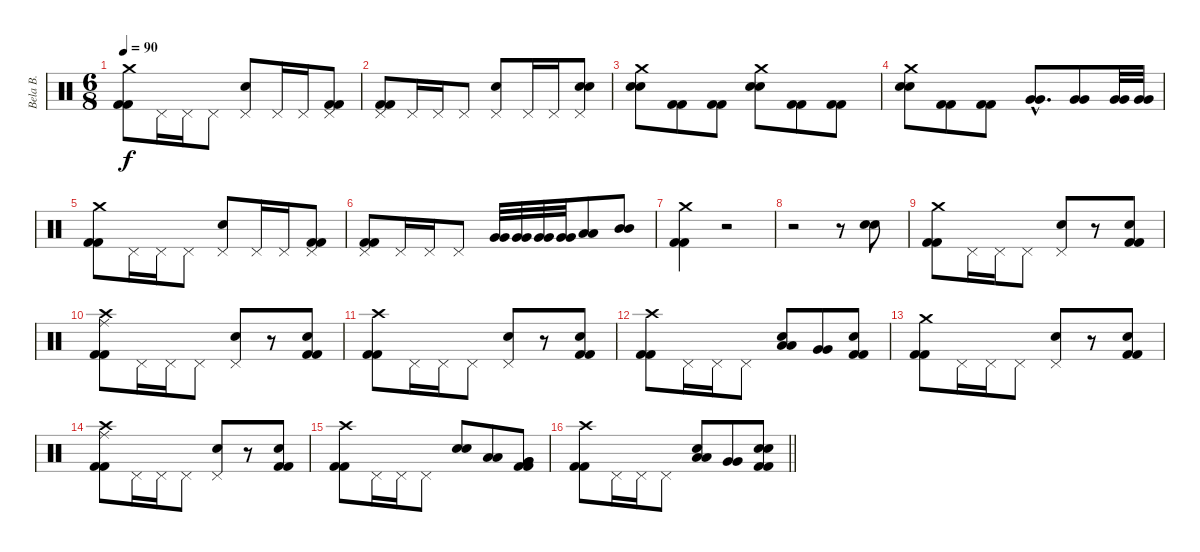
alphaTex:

\track ("Bela B." "Bela B.") {instrument percussion}
\staff {score}
\articulation defaults
\ts (6 8)
\tempo 90
\clef neutral
\ks aminor
("Crash medium (hit)" "Kick (hit) 2" "Kick (hit) 2").8{dy f} "Pedal Hi-Hat (hit)".16 "Pedal Hi-Hat (hit)".16 "Pedal Hi-Hat (hit)".8 ("Pedal Hi-Hat (hit)" "Snare (hit) 2").8 "Pedal Hi-Hat (hit)".16 "Pedal Hi-Hat (hit)".16 ("Pedal Hi-Hat (hit)" "Kick (hit) 2" "Kick (hit) 2").8 |
("Pedal Hi-Hat (hit)" "Kick (hit) 2" "Kick (hit) 2").8 "Pedal Hi-Hat (hit)".16 "Pedal Hi-Hat (hit)".16 "Pedal Hi-Hat (hit)".8 ("Pedal Hi-Hat (hit)" "Snare (hit) 2").8 "Pedal Hi-Hat (hit)".16 "Pedal Hi-Hat (hit)".16 ("Pedal Hi-Hat (hit)" "Electric Snare (hit)" "Snare (hit) 2").8 |
("Crash medium (hit)" "Electric Snare (hit)" "Snare (hit) 2").8 ("Kick (hit) 2" "Kick (hit) 2").8 ("Kick (hit) 2" "Kick (hit) 2").8 ("Crash medium (hit)" "Electric Snare (hit)" "Snare (hit) 2").8 ("Kick (hit) 2" "Kick (hit) 2").8 ("Kick (hit) 2" "Kick (hit) 2").8 |
("Crash medium (hit)" "Electric Snare (hit)" "Snare (hit) 2").8 ("Kick (hit) 2" "Kick (hit) 2").8 ("Kick (hit) 2" "Kick (hit) 2").8 ("Very Low Tom (hit)"{hac} "Very Low Tom (hit)"{hac}).8{d} ("Very Low Tom (hit)" "Very Low Tom (hit)").8 ("Very Low Tom (hit)" "Very Low Tom (hit)").32 ("Very Low Tom (hit)" "Very Low Tom (hit)").32 |
("Crash medium (hit)" "Kick (hit) 2" "Kick (hit) 2").8 "Pedal Hi-Hat (hit)".16 "Pedal Hi-Hat (hit)".16 "Pedal Hi-Hat (hit)".8 ("Pedal Hi-Hat (hit)" "Snare (hit) 2").8 "Pedal Hi-Hat (hit)".16 "Pedal Hi-Hat (hit)".16 ("Pedal Hi-Hat (hit)" "Kick (hit) 2" "Kick (hit) 2").8 |
("Pedal Hi-Hat (hit)" "Kick (hit) 2" "Kick (hit) 2").8 "Pedal Hi-Hat (hit)".16 "Pedal Hi-Hat (hit)".16 "Pedal Hi-Hat (hit)".8 ("Very Low Tom (hit)" "Very Low Tom (hit)").32 ("Very Low Tom (hit)" "Very Low Tom (hit)").32 ("Very Low Tom (hit)" "Very Low Tom (hit)").32 ("Very Low Tom (hit)" "Very Low Tom (hit)").32 ("Low Tom (hit)" "Low Tom (hit)").8 ("Mid Tom (hit)" "Mid Tom (hit)").8 |
("Crash medium (hit)" "Kick (hit) 2" "Kick (hit) 2").4 r.2 |
r.2 r.8 ("Electric Snare (hit)" "Snare (hit) 2").8 |
("Crash medium (hit)" "Kick (hit) 2" "Kick (hit) 2").8 "Pedal Hi-Hat (hit)".16 "Pedal Hi-Hat (hit)".16 "Pedal Hi-Hat (hit)".8 ("Pedal Hi-Hat (hit)" "Snare (hit) 2").8 r.8 ("Electric Snare (hit)" "Kick (hit) 2" "Kick (hit) 2").8 |
("Ride (middle)" "Crash high (hit)" "Kick (hit) 2" "Kick (hit) 2").8 "Pedal Hi-Hat (hit)".16 "Pedal Hi-Hat (hit)".16 "Pedal Hi-Hat (hit)".8 ("Pedal Hi-Hat (hit)" "Snare (hit) 2").8 r.8 ("Electric Snare (hit)" "Kick (hit) 2" "Kick (hit) 2").8 |
("Crash high (hit)" "Kick (hit) 2" "Kick (hit) 2").8 "Pedal Hi-Hat (hit)".16 "Pedal Hi-Hat (hit)".16 "Pedal Hi-Hat (hit)".8 ("Pedal Hi-Hat (hit)" "Snare (hit) 2").8 r.8 ("Electric Snare (hit)" "Kick (hit) 2" "Kick (hit) 2").8 |
("Crash high (hit)" "Kick (hit) 2" "Kick (hit) 2").8 "Pedal Hi-Hat (hit)".16 "Pedal Hi-Hat (hit)".16 "Pedal Hi-Hat (hit)".8 ("Low Tom (hit)" "Low Tom (hit)" "Electric Snare (hit)").8 ("Very Low Tom (hit)" "Very Low Tom (hit)").8 ("Electric Snare (hit)" "Kick (hit) 2" "Kick (hit) 2").8 |
("Crash medium (hit)" "Kick (hit) 2" "Kick (hit) 2").8 "Pedal Hi-Hat (hit)".16 "Pedal Hi-Hat (hit)".16 "Pedal Hi-Hat (hit)".8 ("Pedal Hi-Hat (hit)" "Snare (hit) 2").8 r.8 ("Electric Snare (hit)" "Kick (hit) 2" "Kick (hit) 2").8 |
("Ride (middle)" "Crash high (hit)" "Kick (hit) 2" "Kick (hit) 2").8 "Pedal Hi-Hat (hit)".16 "Pedal Hi-Hat (hit)".16 "Pedal Hi-Hat (hit)".8 ("Pedal Hi-Hat (hit)" "Snare (hit) 2").8 r.8 ("Electric Snare (hit)" "Kick (hit) 2" "Kick (hit) 2").8 |
("Crash high (hit)" "Kick (hit) 2" "Kick (hit) 2").8 "Pedal Hi-Hat (hit)".16 "Pedal Hi-Hat (hit)".16 "Pedal Hi-Hat (hit)".8 ("Electric Snare (hit)" "Snare (hit) 2").8 ("Low Tom (hit)" "Low Tom (hit)").8 ("Very Low Tom (hit)" "Very Low Tom (hit)" "Kick (hit) 2" "Kick (hit) 2").8 |
\barLineRight lightlight
("Crash high (hit)" "Kick (hit) 2" "Kick (hit) 2").8 "Pedal Hi-Hat (hit)".16 "Pedal Hi-Hat (hit)".16 "Pedal Hi-Hat (hit)".8 ("Low Tom (hit)" "Low Tom (hit)" "Electric Snare (hit)").8 ("Very Low Tom (hit)" "Very Low Tom (hit)").8 ("Snare (hit) 2" "Electric Snare (hit)" "Kick (hit) 2" "Kick (hit) 2").8
